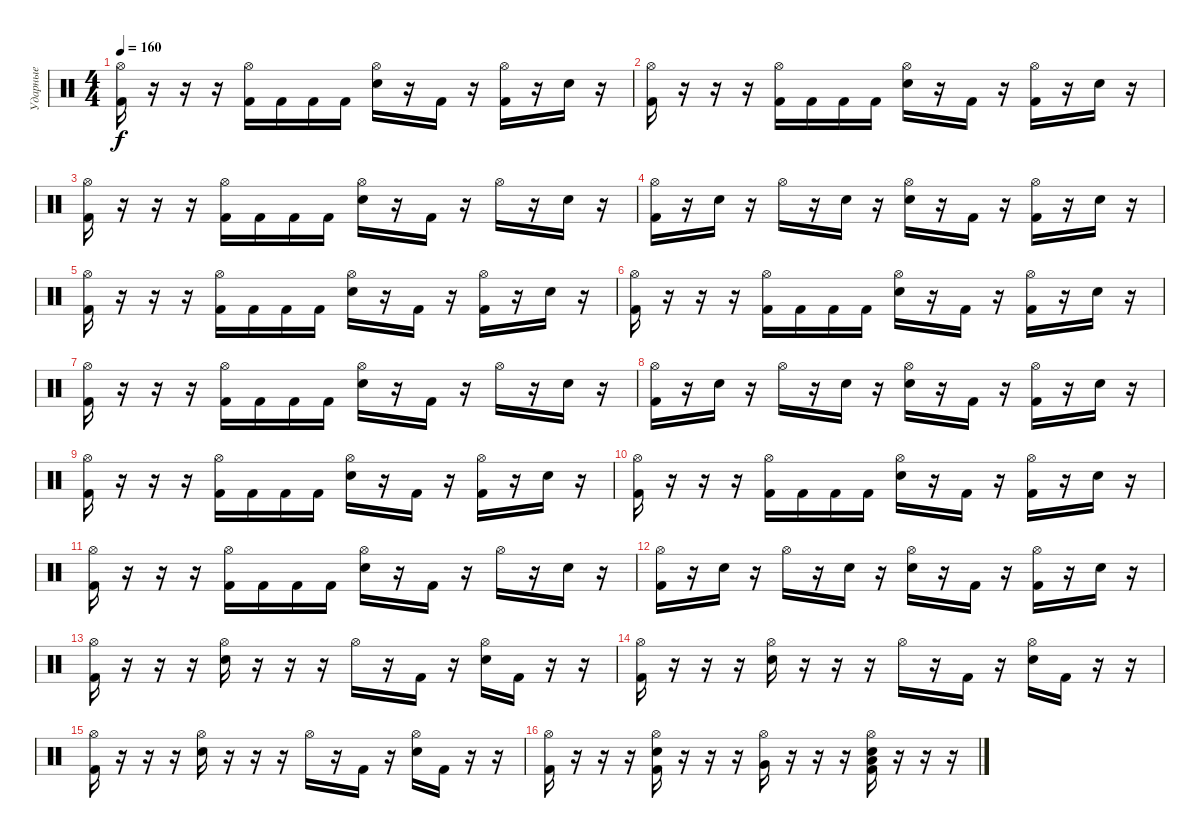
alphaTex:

\track ("Ударные" "Ударные") {instrument percussion}
\staff {score}
\articulation defaults
\ts (4 4)
\tempo 160
\clef neutral
\ks c
("Hi-Hat (open)" "Kick (hit) 2").16{dy f} r.16 r.16 r.16 ("Hi-Hat (open)" "Kick (hit) 2").16 "Kick (hit) 2".16 "Kick (hit) 2".16 "Kick (hit) 2".16 ("Hi-Hat (open)" "Electric Snare (hit)").16 r.16 "Kick (hit) 2".16 r.16 ("Hi-Hat (open)" "Kick (hit) 2").16 r.16 "Electric Snare (hit)".16 r.16 |
("Hi-Hat (open)" "Kick (hit) 2").16 r.16 r.16 r.16 ("Hi-Hat (open)" "Kick (hit) 2").16 "Kick (hit) 2".16 "Kick (hit) 2".16 "Kick (hit) 2".16 ("Hi-Hat (open)" "Electric Snare (hit)").16 r.16 "Kick (hit) 2".16 r.16 ("Hi-Hat (open)" "Kick (hit) 2").16 r.16 "Electric Snare (hit)".16 r.16 |
("Hi-Hat (open)" "Kick (hit) 2").16 r.16 r.16 r.16 ("Hi-Hat (open)" "Kick (hit) 2").16 "Kick (hit) 2".16 "Kick (hit) 2".16 "Kick (hit) 2".16 ("Hi-Hat (open)" "Electric Snare (hit)").16 r.16 "Kick (hit) 2".16 r.16 "Hi-Hat (open)".16 r.16 "Electric Snare (hit)".16 r.16 |
("Hi-Hat (open)" "Kick (hit) 2").16 r.16 "Electric Snare (hit)".16 r.16 "Hi-Hat (open)".16 r.16 "Electric Snare (hit)".16 r.16 ("Hi-Hat (open)" "Electric Snare (hit)").16 r.16 "Kick (hit) 2".16 r.16 ("Hi-Hat (open)" "Kick (hit) 2").16 r.16 "Electric Snare (hit)".16 r.16 |
("Hi-Hat (open)" "Kick (hit) 2").16 r.16 r.16 r.16 ("Hi-Hat (open)" "Kick (hit) 2").16 "Kick (hit) 2".16 "Kick (hit) 2".16 "Kick (hit) 2".16 ("Hi-Hat (open)" "Electric Snare (hit)").16 r.16 "Kick (hit) 2".16 r.16 ("Hi-Hat (open)" "Kick (hit) 2").16 r.16 "Electric Snare (hit)".16 r.16 |
("Hi-Hat (open)" "Kick (hit) 2").16 r.16 r.16 r.16 ("Hi-Hat (open)" "Kick (hit) 2").16 "Kick (hit) 2".16 "Kick (hit) 2".16 "Kick (hit) 2".16 ("Hi-Hat (open)" "Electric Snare (hit)").16 r.16 "Kick (hit) 2".16 r.16 ("Hi-Hat (open)" "Kick (hit) 2").16 r.16 "Electric Snare (hit)".16 r.16 |
("Hi-Hat (open)" "Kick (hit) 2").16 r.16 r.16 r.16 ("Hi-Hat (open)" "Kick (hit) 2").16 "Kick (hit) 2".16 "Kick (hit) 2".16 "Kick (hit) 2".16 ("Hi-Hat (open)" "Electric Snare (hit)").16 r.16 "Kick (hit) 2".16 r.16 "Hi-Hat (open)".16 r.16 "Electric Snare (hit)".16 r.16 |
("Hi-Hat (open)" "Kick (hit) 2").16 r.16 "Electric Snare (hit)".16 r.16 "Hi-Hat (open)".16 r.16 "Electric Snare (hit)".16 r.16 ("Hi-Hat (open)" "Electric Snare (hit)").16 r.16 "Kick (hit) 2".16 r.16 ("Hi-Hat (open)" "Kick (hit) 2").16 r.16 "Electric Snare (hit)".16 r.16 |
("Hi-Hat (open)" "Kick (hit) 2").16 r.16 r.16 r.16 ("Hi-Hat (open)" "Kick (hit) 2").16 "Kick (hit) 2".16 "Kick (hit) 2".16 "Kick (hit) 2".16 ("Hi-Hat (open)" "Electric Snare (hit)").16 r.16 "Kick (hit) 2".16 r.16 ("Hi-Hat (open)" "Kick (hit) 2").16 r.16 "Electric Snare (hit)".16 r.16 |
("Hi-Hat (open)" "Kick (hit) 2").16 r.16 r.16 r.16 ("Hi-Hat (open)" "Kick (hit) 2").16 "Kick (hit) 2".16 "Kick (hit) 2".16 "Kick (hit) 2".16 ("Hi-Hat (open)" "Electric Snare (hit)").16 r.16 "Kick (hit) 2".16 r.16 ("Hi-Hat (open)" "Kick (hit) 2").16 r.16 "Electric Snare (hit)".16 r.16 |
("Hi-Hat (open)" "Kick (hit) 2").16 r.16 r.16 r.16 ("Hi-Hat (open)" "Kick (hit) 2").16 "Kick (hit) 2".16 "Kick (hit) 2".16 "Kick (hit) 2".16 ("Hi-Hat (open)" "Electric Snare (hit)").16 r.16 "Kick (hit) 2".16 r.16 "Hi-Hat (open)".16 r.16 "Electric Snare (hit)".16 r.16 |
("Hi-Hat (open)" "Kick (hit) 2").16 r.16 "Electric Snare (hit)".16 r.16 "Hi-Hat (open)".16 r.16 "Electric Snare (hit)".16 r.16 ("Hi-Hat (open)" "Electric Snare (hit)").16 r.16 "Kick (hit) 2".16 r.16 ("Hi-Hat (open)" "Kick (hit) 2").16 r.16 "Electric Snare (hit)".16 r.16 |
("Hi-Hat (open)" "Kick (hit) 2").16 r.16 r.16 r.16 ("Hi-Hat (open)" "Electric Snare (hit)").16 r.16 r.16 r.16 "Hi-Hat (open)".16 r.16 "Kick (hit) 2".16 r.16 ("Hi-Hat (open)" "Electric Snare (hit)").16 "Kick (hit) 2".16 r.16 r.16 |
("Hi-Hat (open)" "Kick (hit) 2").16 r.16 r.16 r.16 ("Hi-Hat (open)" "Electric Snare (hit)").16 r.16 r.16 r.16 "Hi-Hat (open)".16 r.16 "Kick (hit) 2".16 r.16 ("Hi-Hat (open)" "Electric Snare (hit)").16 "Kick (hit) 2".16 r.16 r.16 |
("Hi-Hat (open)" "Kick (hit) 2").16 r.16 r.16 r.16 ("Hi-Hat (open)" "Electric Snare (hit)").16 r.16 r.16 r.16 "Hi-Hat (open)".16 r.16 "Kick (hit) 2".16 r.16 ("Hi-Hat (open)" "Electric Snare (hit)").16 "Kick (hit) 2".16 r.16 r.16 |
("Hi-Hat (open)" "Kick (hit) 2").16 r.16 r.16 r.16 ("Hi-Hat (open)" "Electric Snare (hit)" "Kick (hit) 2").16 r.16 r.16 r.16 ("Hi-Hat (open)" "Very Low Tom (hit)").16 r.16 r.16 r.16 ("Hi-Hat (open)" "Electric Snare (hit)" "Kick (hit) 2" "Low Floor Tom (hit)").16 r.16 r.16 r.16
